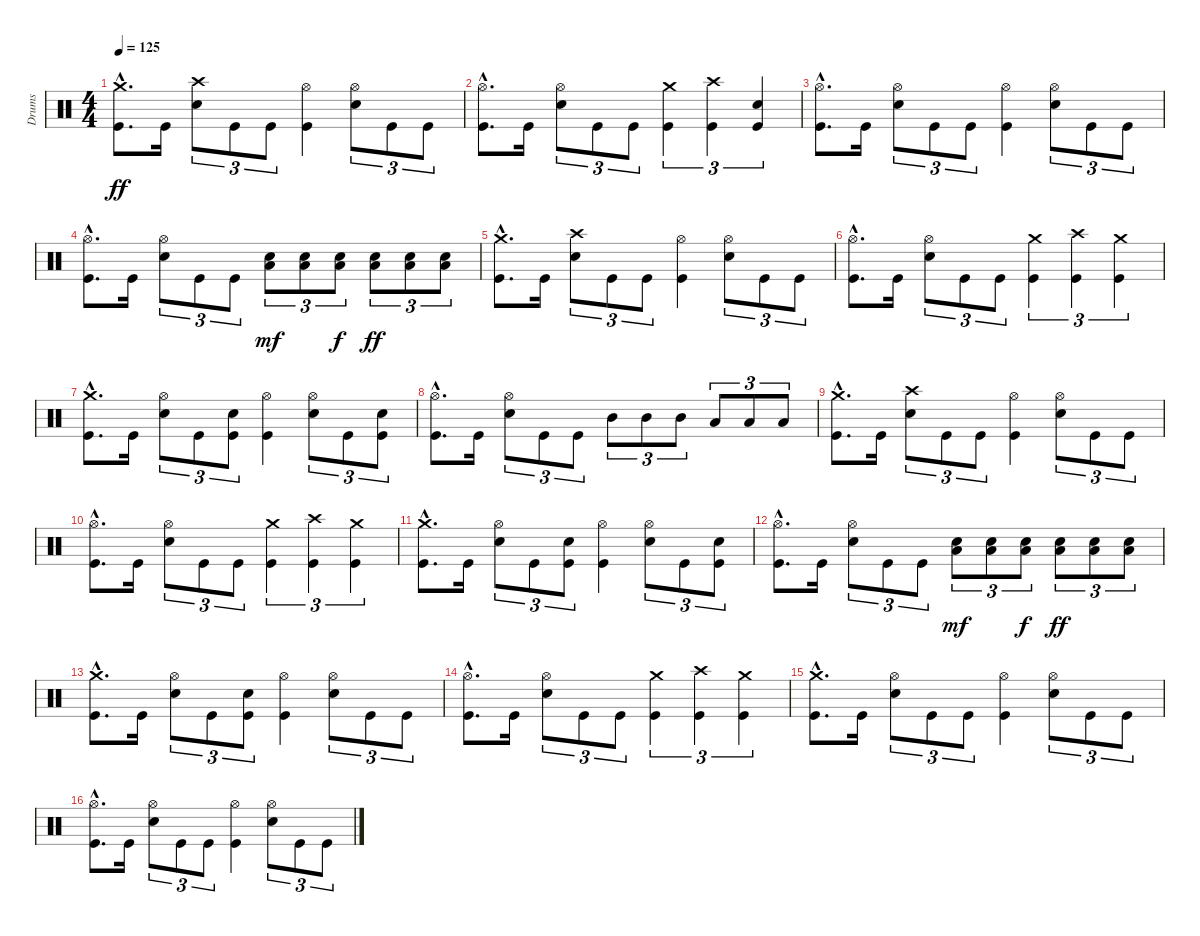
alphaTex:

\track ("Drums" "Drums") {instrument percussion}
\staff {score}
\articulation defaults
\ts (4 4)
\tempo 125
\clef neutral
\ks c
("Crash medium (hit)"{hac} "Kick (hit)"{hac}).8{d dy ff} "Kick (hit)".16 ("Crash high (hit)" "Electric Snare (hit)").8{tu (3 2)} "Kick (hit)".8{tu (3 2)} "Kick (hit)".8{tu (3 2)} ("Hi-Hat (open)" "Kick (hit)").4 ("Hi-Hat (open)" "Electric Snare (hit)").8{tu (3 2)} "Kick (hit)".8{tu (3 2)} "Kick (hit)".8{tu (3 2)} |
("Hi-Hat (open)"{hac} "Kick (hit)"{hac}).8{d} "Kick (hit)".16 ("Hi-Hat (open)" "Electric Snare (hit)").8{tu (3 2)} "Kick (hit)".8{tu (3 2)} "Kick (hit)".8{tu (3 2)} ("Crash medium (hit)" "Kick (hit)").4{tu (3 2)} ("Crash high (hit)" "Kick (hit)").4{tu (3 2)} ("Electric Snare (hit)" "Kick (hit)").4{tu (3 2)} |
("Hi-Hat (open)"{hac} "Kick (hit)"{hac}).8{d} "Kick (hit)".16 ("Hi-Hat (open)" "Electric Snare (hit)").8{tu (3 2)} "Kick (hit)".8{tu (3 2)} "Kick (hit)".8{tu (3 2)} ("Hi-Hat (open)" "Kick (hit)").4 ("Hi-Hat (open)" "Electric Snare (hit)").8{tu (3 2)} "Kick (hit)".8{tu (3 2)} "Kick (hit)".8{tu (3 2)} |
("Hi-Hat (open)"{hac} "Kick (hit)"{hac}).8{d} "Kick (hit)".16 ("Hi-Hat (open)" "Electric Snare (hit)").8{tu (3 2)} "Kick (hit)".8{tu (3 2)} "Kick (hit)".8{tu (3 2)} ("Low Floor Tom (hit)" "Electric Snare (hit)").8{tu (3 2) dy mf} ("Low Floor Tom (hit)" "Electric Snare (hit)").8{tu (3 2)} ("Low Floor Tom (hit)" "Electric Snare (hit)").8{tu (3 2) dy f} ("Low Floor Tom (hit)" "Electric Snare (hit)").8{tu (3 2) dy ff} ("Low Floor Tom (hit)" "Electric Snare (hit)").8{tu (3 2)} ("Low Floor Tom (hit)" "Electric Snare (hit)").8{tu (3 2)} |
("Crash medium (hit)"{hac} "Kick (hit)"{hac}).8{d} "Kick (hit)".16 ("Crash high (hit)" "Electric Snare (hit)").8{tu (3 2)} "Kick (hit)".8{tu (3 2)} "Kick (hit)".8{tu (3 2)} ("Hi-Hat (open)" "Kick (hit)").4 ("Hi-Hat (open)" "Electric Snare (hit)").8{tu (3 2)} "Kick (hit)".8{tu (3 2)} "Kick (hit)".8{tu (3 2)} |
("Hi-Hat (open)"{hac} "Kick (hit)"{hac}).8{d} "Kick (hit)".16 ("Hi-Hat (open)" "Electric Snare (hit)").8{tu (3 2)} "Kick (hit)".8{tu (3 2)} "Kick (hit)".8{tu (3 2)} ("Crash medium (hit)" "Kick (hit)").4{tu (3 2)} ("Crash high (hit)" "Kick (hit)").4{tu (3 2)} ("Crash medium (hit)" "Kick (hit)").4{tu (3 2)} |
("Crash medium (hit)"{hac} "Kick (hit)"{hac}).8{d} "Kick (hit)".16 ("Hi-Hat (open)" "Electric Snare (hit)").8{tu (3 2)} "Kick (hit)".8{tu (3 2)} ("Electric Snare (hit)" "Kick (hit)").8{tu (3 2)} ("Hi-Hat (open)" "Kick (hit)").4 ("Hi-Hat (open)" "Electric Snare (hit)").8{tu (3 2)} "Kick (hit)".8{tu (3 2)} ("Electric Snare (hit)" "Kick (hit)").8{tu (3 2)} |
("Hi-Hat (open)"{hac} "Kick (hit)"{hac}).8{d} "Kick (hit)".16 ("Hi-Hat (open)" "Electric Snare (hit)").8{tu (3 2)} "Kick (hit)".8{tu (3 2)} "Kick (hit)".8{tu (3 2)} "Mid Tom (hit)".8{tu (3 2)} "Mid Tom (hit)".8{tu (3 2)} "Mid Tom (hit)".8{tu (3 2)} "Low Tom (hit)".8{tu (3 2)} "Low Tom (hit)".8{tu (3 2)} "Low Tom (hit)".8{tu (3 2)} |
("Crash medium (hit)"{hac} "Kick (hit)"{hac}).8{d} "Kick (hit)".16 ("Crash high (hit)" "Electric Snare (hit)").8{tu (3 2)} "Kick (hit)".8{tu (3 2)} "Kick (hit)".8{tu (3 2)} ("Hi-Hat (open)" "Kick (hit)").4 ("Hi-Hat (open)" "Electric Snare (hit)").8{tu (3 2)} "Kick (hit)".8{tu (3 2)} "Kick (hit)".8{tu (3 2)} |
("Hi-Hat (open)"{hac} "Kick (hit)"{hac}).8{d} "Kick (hit)".16 ("Hi-Hat (open)" "Electric Snare (hit)").8{tu (3 2)} "Kick (hit)".8{tu (3 2)} "Kick (hit)".8{tu (3 2)} ("Crash medium (hit)" "Kick (hit)").4{tu (3 2)} ("Crash high (hit)" "Kick (hit)").4{tu (3 2)} ("Crash medium (hit)" "Kick (hit)").4{tu (3 2)} |
("Crash medium (hit)"{hac} "Kick (hit)"{hac}).8{d} "Kick (hit)".16 ("Hi-Hat (open)" "Electric Snare (hit)").8{tu (3 2)} "Kick (hit)".8{tu (3 2)} ("Electric Snare (hit)" "Kick (hit)").8{tu (3 2)} ("Hi-Hat (open)" "Kick (hit)").4 ("Hi-Hat (open)" "Electric Snare (hit)").8{tu (3 2)} "Kick (hit)".8{tu (3 2)} ("Electric Snare (hit)" "Kick (hit)").8{tu (3 2)} |
("Hi-Hat (open)"{hac} "Kick (hit)"{hac}).8{d} "Kick (hit)".16 ("Hi-Hat (open)" "Electric Snare (hit)").8{tu (3 2)} "Kick (hit)".8{tu (3 2)} "Kick (hit)".8{tu (3 2)} ("Low Floor Tom (hit)" "Electric Snare (hit)").8{tu (3 2) dy mf} ("Low Floor Tom (hit)" "Electric Snare (hit)").8{tu (3 2)} ("Low Floor Tom (hit)" "Electric Snare (hit)").8{tu (3 2) dy f} ("Low Floor Tom (hit)" "Electric Snare (hit)").8{tu (3 2) dy ff} ("Low Floor Tom (hit)" "Electric Snare (hit)").8{tu (3 2)} ("Low Floor Tom (hit)" "Electric Snare (hit)").8{tu (3 2)} |
("Crash medium (hit)"{hac} "Kick (hit)"{hac}).8{d} "Kick (hit)".16 ("Hi-Hat (open)" "Electric Snare (hit)").8{tu (3 2)} "Kick (hit)".8{tu (3 2)} ("Electric Snare (hit)" "Kick (hit)").8{tu (3 2)} ("Hi-Hat (open)" "Kick (hit)").4 ("Hi-Hat (open)" "Electric Snare (hit)").8{tu (3 2)} "Kick (hit)".8{tu (3 2)} "Kick (hit)".8{tu (3 2)} |
("Hi-Hat (open)"{hac} "Kick (hit)"{hac}).8{d} "Kick (hit)".16 ("Hi-Hat (open)" "Electric Snare (hit)").8{tu (3 2)} "Kick (hit)".8{tu (3 2)} "Kick (hit)".8{tu (3 2)} ("Crash medium (hit)" "Kick (hit)").4{tu (3 2)} ("Crash high (hit)" "Kick (hit)").4{tu (3 2)} ("Crash medium (hit)" "Kick (hit)").4{tu (3 2)} |
("Crash medium (hit)"{hac} "Kick (hit)"{hac}).8{d} "Kick (hit)".16 ("Hi-Hat (open)" "Electric Snare (hit)").8{tu (3 2)} "Kick (hit)".8{tu (3 2)} "Kick (hit)".8{tu (3 2)} ("Hi-Hat (open)" "Kick (hit)").4 ("Hi-Hat (open)" "Electric Snare (hit)").8{tu (3 2)} "Kick (hit)".8{tu (3 2)} "Kick (hit)".8{tu (3 2)} |
("Hi-Hat (open)"{hac} "Kick (hit)"{hac}).8{d} "Kick (hit)".16 ("Hi-Hat (open)" "Electric Snare (hit)").8{tu (3 2)} "Kick (hit)".8{tu (3 2)} "Kick (hit)".8{tu (3 2)} ("Hi-Hat (open)" "Kick (hit)").4 ("Hi-Hat (open)" "Electric Snare (hit)").8{tu (3 2)} "Kick (hit)".8{tu (3 2)} "Kick (hit)".8{tu (3 2)}
